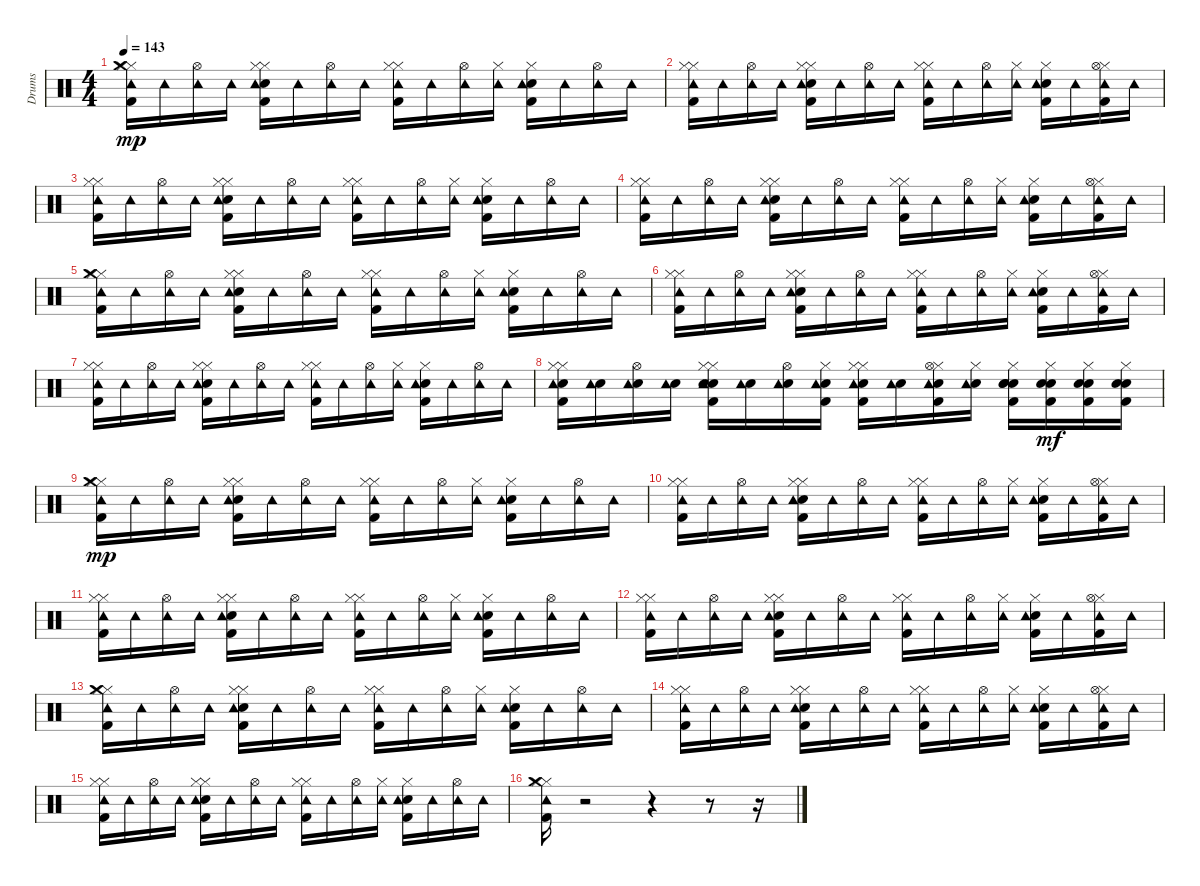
\track ("Drums" "Drums") {instrument percussion}
\staff {score}
\articulation defaults
\ts (4 4)
\tempo 143
\clef neutral
\ks c
("Hi-Hat (closed)" "Kick (hit) 2" "Hi-Hat (closed)" "Tambourine (hit)" "Crash medium (hit)").16{dy mp} "Tambourine (hit)".16 ("Hi-Hat (open)" "Tambourine (hit)").16 "Tambourine (hit)".16 ("Hi-Hat (closed)" "Kick (hit) 2" "Hand Clap (hit)" "Hi-Hat (closed)" "Tambourine (hit)").16 "Tambourine (hit)".16 ("Hi-Hat (open)" "Tambourine (hit)").16 "Tambourine (hit)".16 ("Hi-Hat (closed)" "Kick (hit) 2" "Hi-Hat (closed)" "Tambourine (hit)").16 "Tambourine (hit)".16 ("Hi-Hat (open)" "Tambourine (hit)").16 ("Hi-Hat (closed)" "Tambourine (hit)").16 ("Hi-Hat (closed)" "Kick (hit) 2" "Hand Clap (hit)" "Tambourine (hit)").16 "Tambourine (hit)".16 ("Hi-Hat (open)" "Tambourine (hit)").16 "Tambourine (hit)".16 |
("Hi-Hat (closed)" "Kick (hit) 2" "Hi-Hat (closed)" "Tambourine (hit)").16 "Tambourine (hit)".16 ("Hi-Hat (open)" "Tambourine (hit)").16 "Tambourine (hit)".16 ("Hi-Hat (closed)" "Kick (hit) 2" "Hand Clap (hit)" "Hi-Hat (closed)" "Tambourine (hit)").16 "Tambourine (hit)".16 ("Hi-Hat (open)" "Tambourine (hit)").16 "Tambourine (hit)".16 ("Hi-Hat (closed)" "Kick (hit) 2" "Hi-Hat (closed)" "Tambourine (hit)").16 "Tambourine (hit)".16 ("Hi-Hat (open)" "Tambourine (hit)").16 ("Hi-Hat (closed)" "Tambourine (hit)").16 ("Hi-Hat (closed)" "Kick (hit) 2" "Hand Clap (hit)" "Tambourine (hit)").16 "Tambourine (hit)".16 ("Hi-Hat (closed)" "Kick (hit) 2" "Hi-Hat (open)" "Tambourine (hit)").16 "Tambourine (hit)".16 |
("Hi-Hat (closed)" "Kick (hit) 2" "Hi-Hat (closed)" "Tambourine (hit)").16 "Tambourine (hit)".16 ("Hi-Hat (open)" "Tambourine (hit)").16 "Tambourine (hit)".16 ("Hi-Hat (closed)" "Kick (hit) 2" "Hand Clap (hit)" "Hi-Hat (closed)" "Tambourine (hit)").16 "Tambourine (hit)".16 ("Hi-Hat (open)" "Tambourine (hit)").16 "Tambourine (hit)".16 ("Hi-Hat (closed)" "Kick (hit) 2" "Hi-Hat (closed)" "Tambourine (hit)").16 "Tambourine (hit)".16 ("Hi-Hat (open)" "Tambourine (hit)").16 ("Hi-Hat (closed)" "Tambourine (hit)").16 ("Hi-Hat (closed)" "Kick (hit) 2" "Hand Clap (hit)" "Tambourine (hit)").16 "Tambourine (hit)".16 ("Hi-Hat (open)" "Tambourine (hit)").16 "Tambourine (hit)".16 |
("Hi-Hat (closed)" "Kick (hit) 2" "Hi-Hat (closed)" "Tambourine (hit)").16 "Tambourine (hit)".16 ("Hi-Hat (open)" "Tambourine (hit)").16 "Tambourine (hit)".16 ("Hi-Hat (closed)" "Kick (hit) 2" "Hand Clap (hit)" "Hi-Hat (closed)" "Tambourine (hit)").16 "Tambourine (hit)".16 ("Hi-Hat (open)" "Tambourine (hit)").16 "Tambourine (hit)".16 ("Hi-Hat (closed)" "Kick (hit) 2" "Hi-Hat (closed)" "Tambourine (hit)").16 "Tambourine (hit)".16 ("Hi-Hat (open)" "Tambourine (hit)").16 ("Hi-Hat (closed)" "Tambourine (hit)").16 ("Hi-Hat (closed)" "Kick (hit) 2" "Hand Clap (hit)" "Tambourine (hit)").16 "Tambourine (hit)".16 ("Hi-Hat (closed)" "Kick (hit) 2" "Hi-Hat (open)" "Tambourine (hit)").16 "Tambourine (hit)".16 |
("Hi-Hat (closed)" "Kick (hit) 2" "Hi-Hat (closed)" "Tambourine (hit)" "Crash medium (hit)").16 "Tambourine (hit)".16 ("Hi-Hat (open)" "Tambourine (hit)").16 "Tambourine (hit)".16 ("Hi-Hat (closed)" "Kick (hit) 2" "Hand Clap (hit)" "Hi-Hat (closed)" "Tambourine (hit)").16 "Tambourine (hit)".16 ("Hi-Hat (open)" "Tambourine (hit)").16 "Tambourine (hit)".16 ("Hi-Hat (closed)" "Kick (hit) 2" "Hi-Hat (closed)" "Tambourine (hit)").16 "Tambourine (hit)".16 ("Hi-Hat (open)" "Tambourine (hit)").16 ("Hi-Hat (closed)" "Tambourine (hit)").16 ("Hi-Hat (closed)" "Kick (hit) 2" "Hand Clap (hit)" "Tambourine (hit)").16 "Tambourine (hit)".16 ("Hi-Hat (open)" "Tambourine (hit)").16 "Tambourine (hit)".16 |
("Hi-Hat (closed)" "Kick (hit) 2" "Hi-Hat (closed)" "Tambourine (hit)").16 "Tambourine (hit)".16 ("Hi-Hat (open)" "Tambourine (hit)").16 "Tambourine (hit)".16 ("Hi-Hat (closed)" "Kick (hit) 2" "Hand Clap (hit)" "Hi-Hat (closed)" "Tambourine (hit)").16 "Tambourine (hit)".16 ("Hi-Hat (open)" "Tambourine (hit)").16 "Tambourine (hit)".16 ("Hi-Hat (closed)" "Kick (hit) 2" "Hi-Hat (closed)" "Tambourine (hit)").16 "Tambourine (hit)".16 ("Hi-Hat (open)" "Tambourine (hit)").16 ("Hi-Hat (closed)" "Tambourine (hit)").16 ("Hi-Hat (closed)" "Kick (hit) 2" "Hand Clap (hit)" "Tambourine (hit)").16 "Tambourine (hit)".16 ("Hi-Hat (closed)" "Kick (hit) 2" "Hi-Hat (open)" "Tambourine (hit)").16 "Tambourine (hit)".16 |
("Hi-Hat (closed)" "Kick (hit) 2" "Hi-Hat (closed)" "Tambourine (hit)").16 "Tambourine (hit)".16 ("Hi-Hat (open)" "Tambourine (hit)").16 "Tambourine (hit)".16 ("Hi-Hat (closed)" "Kick (hit) 2" "Hand Clap (hit)" "Hi-Hat (closed)" "Tambourine (hit)").16 "Tambourine (hit)".16 ("Hi-Hat (open)" "Tambourine (hit)").16 "Tambourine (hit)".16 ("Hi-Hat (closed)" "Kick (hit) 2" "Hi-Hat (closed)" "Tambourine (hit)").16 "Tambourine (hit)".16 ("Hi-Hat (open)" "Tambourine (hit)").16 ("Hi-Hat (closed)" "Tambourine (hit)").16 ("Hi-Hat (closed)" "Kick (hit) 2" "Hand Clap (hit)" "Tambourine (hit)").16 "Tambourine (hit)".16 ("Hi-Hat (open)" "Tambourine (hit)").16 "Tambourine (hit)".16 |
("Hi-Hat (closed)" "Kick (hit) 2" "Snare (hit) 2" "Hi-Hat (closed)" "Tambourine (hit)").16 ("Snare (hit) 2" "Tambourine (hit)").16 ("Snare (hit) 2" "Hi-Hat (open)" "Tambourine (hit)").16 ("Snare (hit) 2" "Tambourine (hit)").16 ("Hi-Hat (closed)" "Kick (hit) 2" "Snare (hit) 2" "Hand Clap (hit)" "Hi-Hat (closed)" "Tambourine (hit)").16 ("Snare (hit) 2" "Tambourine (hit)").16 ("Snare (hit) 2" "Hi-Hat (open)" "Tambourine (hit)").16 ("Hi-Hat (closed)" "Kick (hit) 2" "Snare (hit) 2" "Tambourine (hit)").16 ("Hi-Hat (closed)" "Kick (hit) 2" "Snare (hit) 2" "Hi-Hat (closed)" "Tambourine (hit)").16 ("Snare (hit) 2" "Tambourine (hit)").16 ("Hi-Hat (closed)" "Kick (hit) 2" "Snare (hit) 2" "Hi-Hat (open)" "Tambourine (hit)").16 ("Snare (hit) 2" "Hi-Hat (closed)" "Tambourine (hit)").16 ("Hi-Hat (closed)" "Kick (hit) 2" "Snare (hit) 2" "Hand Clap (hit)" "Snare (hit) 2").16 ("Hi-Hat (closed)" "Kick (hit) 2" "Snare (hit) 2" "Snare (hit) 2").16{dy mf} ("Hi-Hat (closed)" "Kick (hit) 2" "Snare (hit) 2" "Snare (hit) 2").16 ("Hi-Hat (closed)" "Kick (hit) 2" "Snare (hit) 2" "Snare (hit) 2").16 |
("Hi-Hat (closed)" "Kick (hit) 2" "Hi-Hat (closed)" "Tambourine (hit)" "Crash medium (hit)").16{dy mp} "Tambourine (hit)".16 ("Hi-Hat (open)" "Tambourine (hit)").16 "Tambourine (hit)".16 ("Hi-Hat (closed)" "Kick (hit) 2" "Hand Clap (hit)" "Hi-Hat (closed)" "Tambourine (hit)").16 "Tambourine (hit)".16 ("Hi-Hat (open)" "Tambourine (hit)").16 "Tambourine (hit)".16 ("Hi-Hat (closed)" "Kick (hit) 2" "Hi-Hat (closed)" "Tambourine (hit)").16 "Tambourine (hit)".16 ("Hi-Hat (open)" "Tambourine (hit)").16 ("Hi-Hat (closed)" "Tambourine (hit)").16 ("Hi-Hat (closed)" "Kick (hit) 2" "Hand Clap (hit)" "Tambourine (hit)").16 "Tambourine (hit)".16 ("Hi-Hat (open)" "Tambourine (hit)").16 "Tambourine (hit)".16 |
("Hi-Hat (closed)" "Kick (hit) 2" "Hi-Hat (closed)" "Tambourine (hit)").16 "Tambourine (hit)".16 ("Hi-Hat (open)" "Tambourine (hit)").16 "Tambourine (hit)".16 ("Hi-Hat (closed)" "Kick (hit) 2" "Hand Clap (hit)" "Hi-Hat (closed)" "Tambourine (hit)").16 "Tambourine (hit)".16 ("Hi-Hat (open)" "Tambourine (hit)").16 "Tambourine (hit)".16 ("Hi-Hat (closed)" "Kick (hit) 2" "Hi-Hat (closed)" "Tambourine (hit)").16 "Tambourine (hit)".16 ("Hi-Hat (open)" "Tambourine (hit)").16 ("Hi-Hat (closed)" "Tambourine (hit)").16 ("Hi-Hat (closed)" "Kick (hit) 2" "Hand Clap (hit)" "Tambourine (hit)").16 "Tambourine (hit)".16 ("Hi-Hat (closed)" "Kick (hit) 2" "Hi-Hat (open)" "Tambourine (hit)").16 "Tambourine (hit)".16 |
("Hi-Hat (closed)" "Kick (hit) 2" "Hi-Hat (closed)" "Tambourine (hit)").16 "Tambourine (hit)".16 ("Hi-Hat (open)" "Tambourine (hit)").16 "Tambourine (hit)".16 ("Hi-Hat (closed)" "Kick (hit) 2" "Hand Clap (hit)" "Hi-Hat (closed)" "Tambourine (hit)").16 "Tambourine (hit)".16 ("Hi-Hat (open)" "Tambourine (hit)").16 "Tambourine (hit)".16 ("Hi-Hat (closed)" "Kick (hit) 2" "Hi-Hat (closed)" "Tambourine (hit)").16 "Tambourine (hit)".16 ("Hi-Hat (open)" "Tambourine (hit)").16 ("Hi-Hat (closed)" "Tambourine (hit)").16 ("Hi-Hat (closed)" "Kick (hit) 2" "Hand Clap (hit)" "Tambourine (hit)").16 "Tambourine (hit)".16 ("Hi-Hat (open)" "Tambourine (hit)").16 "Tambourine (hit)".16 |
("Hi-Hat (closed)" "Kick (hit) 2" "Hi-Hat (closed)" "Tambourine (hit)").16 "Tambourine (hit)".16 ("Hi-Hat (open)" "Tambourine (hit)").16 "Tambourine (hit)".16 ("Hi-Hat (closed)" "Kick (hit) 2" "Hand Clap (hit)" "Hi-Hat (closed)" "Tambourine (hit)").16 "Tambourine (hit)".16 ("Hi-Hat (open)" "Tambourine (hit)").16 "Tambourine (hit)".16 ("Hi-Hat (closed)" "Kick (hit) 2" "Hi-Hat (closed)" "Tambourine (hit)").16 "Tambourine (hit)".16 ("Hi-Hat (open)" "Tambourine (hit)").16 ("Hi-Hat (closed)" "Tambourine (hit)").16 ("Hi-Hat (closed)" "Kick (hit) 2" "Hand Clap (hit)" "Tambourine (hit)").16 "Tambourine (hit)".16 ("Hi-Hat (closed)" "Kick (hit) 2" "Hi-Hat (open)" "Tambourine (hit)").16 "Tambourine (hit)".16 |
("Hi-Hat (closed)" "Kick (hit) 2" "Hi-Hat (closed)" "Tambourine (hit)" "Crash medium (hit)").16 "Tambourine (hit)".16 ("Hi-Hat (open)" "Tambourine (hit)").16 "Tambourine (hit)".16 ("Hi-Hat (closed)" "Kick (hit) 2" "Hand Clap (hit)" "Hi-Hat (closed)" "Tambourine (hit)").16 "Tambourine (hit)".16 ("Hi-Hat (open)" "Tambourine (hit)").16 "Tambourine (hit)".16 ("Hi-Hat (closed)" "Kick (hit) 2" "Hi-Hat (closed)" "Tambourine (hit)").16 "Tambourine (hit)".16 ("Hi-Hat (open)" "Tambourine (hit)").16 ("Hi-Hat (closed)" "Tambourine (hit)").16 ("Hi-Hat (closed)" "Kick (hit) 2" "Hand Clap (hit)" "Tambourine (hit)").16 "Tambourine (hit)".16 ("Hi-Hat (open)" "Tambourine (hit)").16 "Tambourine (hit)".16 |
("Hi-Hat (closed)" "Kick (hit) 2" "Hi-Hat (closed)" "Tambourine (hit)").16 "Tambourine (hit)".16 ("Hi-Hat (open)" "Tambourine (hit)").16 "Tambourine (hit)".16 ("Hi-Hat (closed)" "Kick (hit) 2" "Hand Clap (hit)" "Hi-Hat (closed)" "Tambourine (hit)").16 "Tambourine (hit)".16 ("Hi-Hat (open)" "Tambourine (hit)").16 "Tambourine (hit)".16 ("Hi-Hat (closed)" "Kick (hit) 2" "Hi-Hat (closed)" "Tambourine (hit)").16 "Tambourine (hit)".16 ("Hi-Hat (open)" "Tambourine (hit)").16 ("Hi-Hat (closed)" "Tambourine (hit)").16 ("Hi-Hat (closed)" "Kick (hit) 2" "Hand Clap (hit)" "Tambourine (hit)").16 "Tambourine (hit)".16 ("Hi-Hat (closed)" "Kick (hit) 2" "Hi-Hat (open)" "Tambourine (hit)").16 "Tambourine (hit)".16 |
("Hi-Hat (closed)" "Kick (hit) 2" "Hi-Hat (closed)" "Tambourine (hit)").16 "Tambourine (hit)".16 ("Hi-Hat (open)" "Tambourine (hit)").16 "Tambourine (hit)".16 ("Hi-Hat (closed)" "Kick (hit) 2" "Hand Clap (hit)" "Hi-Hat (closed)" "Tambourine (hit)").16 "Tambourine (hit)".16 ("Hi-Hat (open)" "Tambourine (hit)").16 "Tambourine (hit)".16 ("Hi-Hat (closed)" "Kick (hit) 2" "Hi-Hat (closed)" "Tambourine (hit)").16 "Tambourine (hit)".16 ("Hi-Hat (open)" "Tambourine (hit)").16 ("Hi-Hat (closed)" "Tambourine (hit)").16 ("Hi-Hat (closed)" "Kick (hit) 2" "Hand Clap (hit)" "Tambourine (hit)").16 "Tambourine (hit)".16 ("Hi-Hat (open)" "Tambourine (hit)").16 "Tambourine (hit)".16 |
("Hi-Hat (closed)" "Kick (hit) 2" "Hi-Hat (closed)" "Tambourine (hit)" "Crash medium (hit)").16 r.2 r.4 r.8 r.16
